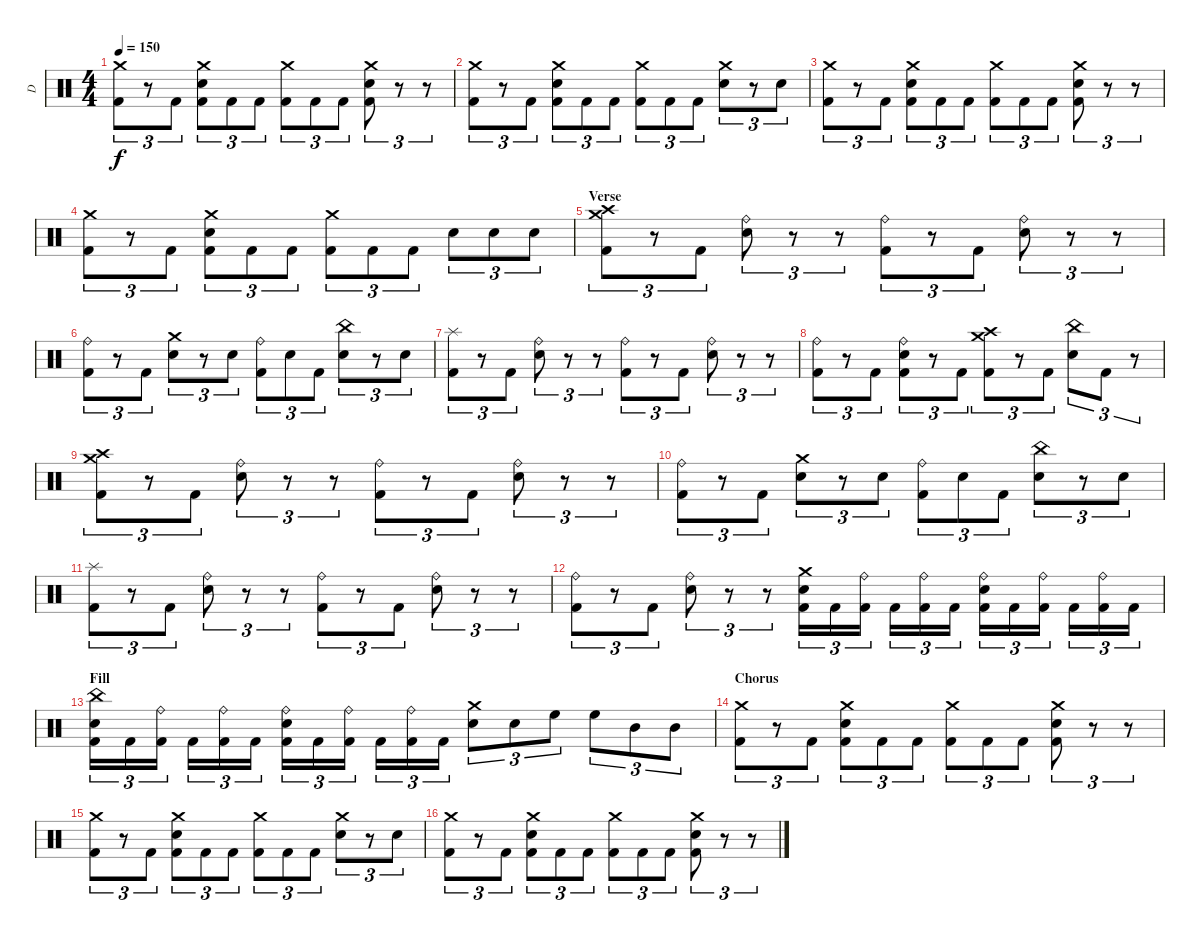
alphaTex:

\track ("D" "D") {instrument percussion}
\staff {score}
\articulation defaults
\ts (4 4)
\tempo 150
\clef neutral
\ks c
("Crash medium (hit)" "Kick (hit) 2").8{tu (3 2) dy f} r.8{tu (3 2)} "Kick (hit) 2".8{tu (3 2)} ("Crash medium (hit)" "Electric Snare (hit)" "Kick (hit) 2").8{tu (3 2)} "Kick (hit) 2".8{tu (3 2)} "Kick (hit) 2".8{tu (3 2)} ("Crash medium (hit)" "Kick (hit) 2").8{tu (3 2)} "Kick (hit) 2".8{tu (3 2)} "Kick (hit) 2".8{tu (3 2)} ("Crash medium (hit)" "Electric Snare (hit)" "Kick (hit) 2").8{tu (3 2)} r.8{tu (3 2)} r.8{tu (3 2)} |
("Crash medium (hit)" "Kick (hit) 2").8{tu (3 2)} r.8{tu (3 2)} "Kick (hit) 2".8{tu (3 2)} ("Crash medium (hit)" "Electric Snare (hit)" "Kick (hit) 2").8{tu (3 2)} "Kick (hit) 2".8{tu (3 2)} "Kick (hit) 2".8{tu (3 2)} ("Crash medium (hit)" "Kick (hit) 2").8{tu (3 2)} "Kick (hit) 2".8{tu (3 2)} "Kick (hit) 2".8{tu (3 2)} ("Crash medium (hit)" "Electric Snare (hit)").8{tu (3 2)} r.8{tu (3 2)} "Electric Snare (hit)".8{tu (3 2)} |
("Crash medium (hit)" "Kick (hit) 2").8{tu (3 2)} r.8{tu (3 2)} "Kick (hit) 2".8{tu (3 2)} ("Crash medium (hit)" "Electric Snare (hit)" "Kick (hit) 2").8{tu (3 2)} "Kick (hit) 2".8{tu (3 2)} "Kick (hit) 2".8{tu (3 2)} ("Crash medium (hit)" "Kick (hit) 2").8{tu (3 2)} "Kick (hit) 2".8{tu (3 2)} "Kick (hit) 2".8{tu (3 2)} ("Crash medium (hit)" "Electric Snare (hit)" "Kick (hit) 2").8{tu (3 2)} r.8{tu (3 2)} r.8{tu (3 2)} |
("Crash medium (hit)" "Kick (hit) 2").8{tu (3 2)} r.8{tu (3 2)} "Kick (hit) 2".8{tu (3 2)} ("Crash medium (hit)" "Electric Snare (hit)" "Kick (hit) 2").8{tu (3 2)} "Kick (hit) 2".8{tu (3 2)} "Kick (hit) 2".8{tu (3 2)} ("Crash medium (hit)" "Kick (hit) 2").8{tu (3 2)} "Kick (hit) 2".8{tu (3 2)} "Kick (hit) 2".8{tu (3 2)} "Electric Snare (hit)".8{tu (3 2)} "Electric Snare (hit)".8{tu (3 2)} "Electric Snare (hit)".8{tu (3 2)} |
\section ("" "Verse")
("Crash high (hit)" "Crash medium (hit)" "Kick (hit) 2").8{tu (3 2)} r.8{tu (3 2)} "Kick (hit) 2".8{tu (3 2)} ("Ride (bell)" "Electric Snare (hit)").8{tu (3 2)} r.8{tu (3 2)} r.8{tu (3 2)} ("Ride (bell)" "Kick (hit) 2").8{tu (3 2)} r.8{tu (3 2)} "Kick (hit) 2".8{tu (3 2)} ("Ride (bell)" "Electric Snare (hit)").8{tu (3 2)} r.8{tu (3 2)} r.8{tu (3 2)} |
("Ride (bell)" "Kick (hit) 2").8{tu (3 2)} r.8{tu (3 2)} "Kick (hit) 2".8{tu (3 2)} ("Crash medium (hit)" "Electric Snare (hit)").8{tu (3 2)} r.8{tu (3 2)} "Electric Snare (hit)".8{tu (3 2)} ("Ride (bell)" "Kick (hit) 2").8{tu (3 2)} "Electric Snare (hit)".8{tu (3 2)} "Kick (hit) 2".8{tu (3 2)} ("China (hit)" "Electric Snare (hit)").8{tu (3 2)} r.8{tu (3 2)} "Electric Snare (hit)".8{tu (3 2)} |
("Splash (hit)" "Kick (hit) 2").8{tu (3 2)} r.8{tu (3 2)} "Kick (hit) 2".8{tu (3 2)} ("Ride (bell)" "Electric Snare (hit)").8{tu (3 2)} r.8{tu (3 2)} r.8{tu (3 2)} ("Ride (bell)" "Kick (hit) 2").8{tu (3 2)} r.8{tu (3 2)} "Kick (hit) 2".8{tu (3 2)} ("Ride (bell)" "Electric Snare (hit)").8{tu (3 2)} r.8{tu (3 2)} r.8{tu (3 2)} |
("Ride (bell)" "Kick (hit) 2").8{tu (3 2)} r.8{tu (3 2)} "Kick (hit) 2".8{tu (3 2)} ("Ride (bell)" "Electric Snare (hit)" "Kick (hit) 2").8{tu (3 2)} r.8{tu (3 2)} "Kick (hit) 2".8{tu (3 2)} ("Crash medium (hit)" "Crash high (hit)" "Kick (hit) 2").8{tu (3 2)} r.8{tu (3 2)} "Kick (hit) 2".8{tu (3 2)} ("China (hit)" "Electric Snare (hit)").8{tu (3 2)} "Kick (hit) 2".8{tu (3 2)} r.8{tu (3 2)} |
("Crash high (hit)" "Crash medium (hit)" "Kick (hit) 2").8{tu (3 2)} r.8{tu (3 2)} "Kick (hit) 2".8{tu (3 2)} ("Ride (bell)" "Electric Snare (hit)").8{tu (3 2)} r.8{tu (3 2)} r.8{tu (3 2)} ("Ride (bell)" "Kick (hit) 2").8{tu (3 2)} r.8{tu (3 2)} "Kick (hit) 2".8{tu (3 2)} ("Ride (bell)" "Electric Snare (hit)").8{tu (3 2)} r.8{tu (3 2)} r.8{tu (3 2)} |
("Ride (bell)" "Kick (hit) 2").8{tu (3 2)} r.8{tu (3 2)} "Kick (hit) 2".8{tu (3 2)} ("Crash medium (hit)" "Electric Snare (hit)").8{tu (3 2)} r.8{tu (3 2)} "Electric Snare (hit)".8{tu (3 2)} ("Ride (bell)" "Kick (hit) 2").8{tu (3 2)} "Electric Snare (hit)".8{tu (3 2)} "Kick (hit) 2".8{tu (3 2)} ("China (hit)" "Electric Snare (hit)").8{tu (3 2)} r.8{tu (3 2)} "Electric Snare (hit)".8{tu (3 2)} |
("Splash (hit)" "Kick (hit) 2").8{tu (3 2)} r.8{tu (3 2)} "Kick (hit) 2".8{tu (3 2)} ("Ride (bell)" "Electric Snare (hit)").8{tu (3 2)} r.8{tu (3 2)} r.8{tu (3 2)} ("Ride (bell)" "Kick (hit) 2").8{tu (3 2)} r.8{tu (3 2)} "Kick (hit) 2".8{tu (3 2)} ("Ride (bell)" "Electric Snare (hit)").8{tu (3 2)} r.8{tu (3 2)} r.8{tu (3 2)} |
("Ride (bell)" "Kick (hit) 2").8{tu (3 2)} r.8{tu (3 2)} "Kick (hit) 2".8{tu (3 2)} ("Ride (bell)" "Electric Snare (hit)").8{tu (3 2)} r.8{tu (3 2)} r.8{tu (3 2)} ("Crash medium (hit)" "Electric Snare (hit)" "Kick (hit) 2").16{tu (3 2)} "Kick (hit) 2".16{tu (3 2)} ("Ride (bell)" "Kick (hit) 2").16{tu (3 2)} "Kick (hit) 2".16{tu (3 2)} ("Ride (bell)" "Kick (hit) 2").16{tu (3 2)} "Kick (hit) 2".16{tu (3 2)} ("Ride (bell)" "Electric Snare (hit)" "Kick (hit) 2").16{tu (3 2)} "Kick (hit) 2".16{tu (3 2)} ("Ride (bell)" "Kick (hit) 2").16{tu (3 2)} "Kick (hit) 2".16{tu (3 2)} ("Ride (bell)" "Kick (hit) 2").16{tu (3 2)} "Kick (hit) 2".16{tu (3 2)} |
\section ("" "Fill")
("China (hit)" "Electric Snare (hit)" "Kick (hit) 2").16{tu (3 2)} "Kick (hit) 2".16{tu (3 2)} ("Ride (bell)" "Kick (hit) 2").16{tu (3 2)} "Kick (hit) 2".16{tu (3 2)} ("Ride (bell)" "Kick (hit) 2").16{tu (3 2)} "Kick (hit) 2".16{tu (3 2)} ("Ride (bell)" "Electric Snare (hit)" "Kick (hit) 2").16{tu (3 2)} "Kick (hit) 2".16{tu (3 2)} ("Ride (bell)" "Kick (hit) 2").16{tu (3 2)} "Kick (hit) 2".16{tu (3 2)} ("Ride (bell)" "Kick (hit) 2").16{tu (3 2)} "Kick (hit) 2".16{tu (3 2)} ("Crash medium (hit)" "Electric Snare (hit)").8{tu (3 2)} "Electric Snare (hit)".8{tu (3 2)} "High Floor Tom (hit)".8{tu (3 2)} "High Floor Tom (hit)".8{tu (3 2)} "Mid Tom (hit)".8{tu (3 2)} "Mid Tom (hit)".8{tu (3 2)} |
\section ("" "Chorus")
("Crash medium (hit)" "Kick (hit) 2").8{tu (3 2)} r.8{tu (3 2)} "Kick (hit) 2".8{tu (3 2)} ("Crash medium (hit)" "Electric Snare (hit)" "Kick (hit) 2").8{tu (3 2)} "Kick (hit) 2".8{tu (3 2)} "Kick (hit) 2".8{tu (3 2)} ("Crash medium (hit)" "Kick (hit) 2").8{tu (3 2)} "Kick (hit) 2".8{tu (3 2)} "Kick (hit) 2".8{tu (3 2)} ("Crash medium (hit)" "Electric Snare (hit)" "Kick (hit) 2").8{tu (3 2)} r.8{tu (3 2)} r.8{tu (3 2)} |
("Crash medium (hit)" "Kick (hit) 2").8{tu (3 2)} r.8{tu (3 2)} "Kick (hit) 2".8{tu (3 2)} ("Crash medium (hit)" "Electric Snare (hit)" "Kick (hit) 2").8{tu (3 2)} "Kick (hit) 2".8{tu (3 2)} "Kick (hit) 2".8{tu (3 2)} ("Crash medium (hit)" "Kick (hit) 2").8{tu (3 2)} "Kick (hit) 2".8{tu (3 2)} "Kick (hit) 2".8{tu (3 2)} ("Crash medium (hit)" "Electric Snare (hit)").8{tu (3 2)} r.8{tu (3 2)} "Electric Snare (hit)".8{tu (3 2)} |
("Crash medium (hit)" "Kick (hit) 2").8{tu (3 2)} r.8{tu (3 2)} "Kick (hit) 2".8{tu (3 2)} ("Crash medium (hit)" "Electric Snare (hit)" "Kick (hit) 2").8{tu (3 2)} "Kick (hit) 2".8{tu (3 2)} "Kick (hit) 2".8{tu (3 2)} ("Crash medium (hit)" "Kick (hit) 2").8{tu (3 2)} "Kick (hit) 2".8{tu (3 2)} "Kick (hit) 2".8{tu (3 2)} ("Crash medium (hit)" "Electric Snare (hit)" "Kick (hit) 2").8{tu (3 2)} r.8{tu (3 2)} r.8{tu (3 2)}
